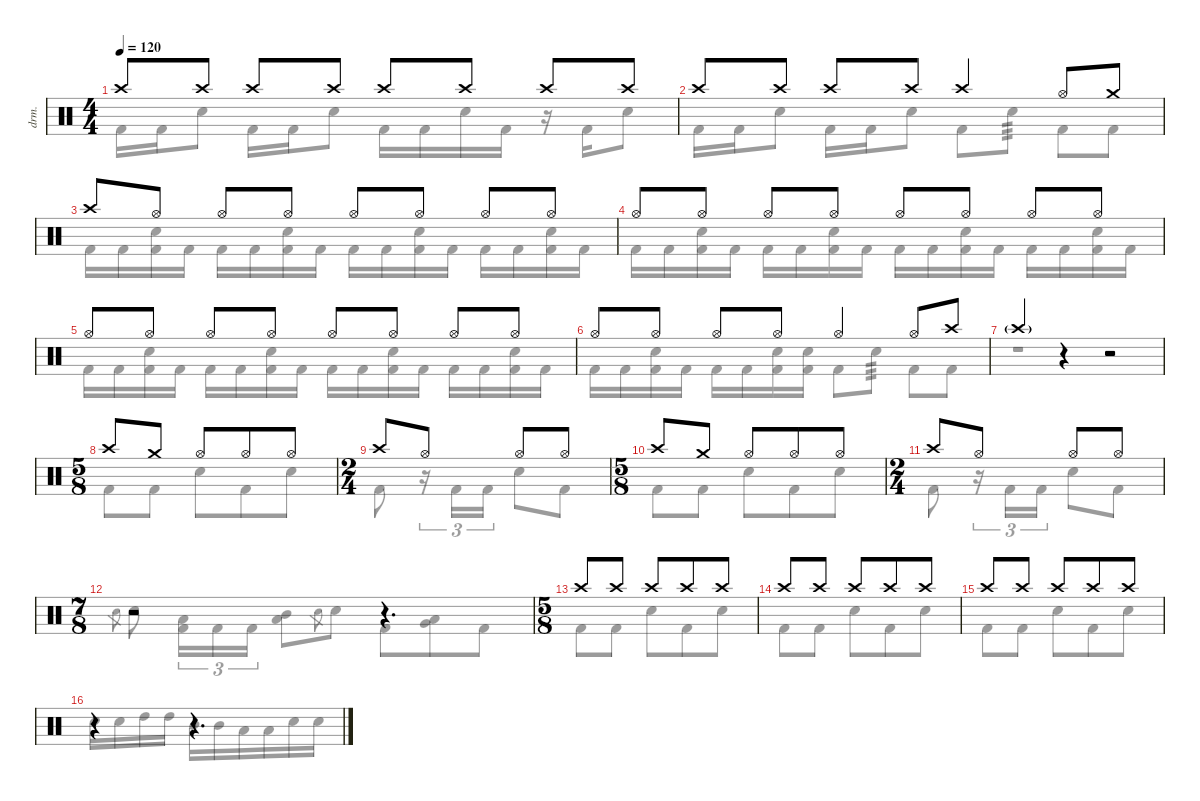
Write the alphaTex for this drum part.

\defaultSystemsLayout 4
\hideDynamics
\bracketExtendMode nobrackets
\otherSystemsTrackNameOrientation horizontal
\track ("B. Richardson Drums" "drm.") {instrument percussion}
\staff {score}
\articulation defaults
\voice
\ts (4 4)
\tempo 120
\clef neutral
\ks c "Crash high (hit)".8{dy mf beam Up} "Crash high (hit)".8{beam Up} "Crash high (hit)".8{beam Up} "Crash high (hit)".8{beam Up} "Crash high (hit)".8{beam Up} "Crash high (hit)".8{beam Up} "Crash high (hit)".8{beam Up} "Crash high (hit)".8{beam Up}
|
"Crash high (hit)".8{beam Up} "Crash high (hit)".8{beam Up} "Crash high (hit)".8{beam Up} "Crash high (hit)".8{beam Up} "Crash high (hit)".4{beam Up} "Hi-Hat (open)".8{beam Up} "Crash medium (hit)".8{beam Up} |
"Crash high (hit)".8{beam Up} "Hi-Hat (open)".8{beam Up} "Hi-Hat (open)".8{beam Up} "Hi-Hat (open)".8{beam Up} "Hi-Hat (open)".8{beam Up} "Hi-Hat (open)".8{beam Up} "Hi-Hat (open)".8{beam Up} "Hi-Hat (open)".8{beam Up} |
"Hi-Hat (open)".8{beam Up} "Hi-Hat (open)".8{beam Up} "Hi-Hat (open)".8{beam Up} "Hi-Hat (open)".8{beam Up} "Hi-Hat (open)".8{beam Up} "Hi-Hat (open)".8{beam Up} "Hi-Hat (open)".8{beam Up} "Hi-Hat (open)".8{beam Up} |
"Hi-Hat (open)".8{beam Up} "Hi-Hat (open)".8{beam Up} "Hi-Hat (open)".8{beam Up} "Hi-Hat (open)".8{beam Up} "Hi-Hat (open)".8{beam Up} "Hi-Hat (open)".8{beam Up} "Hi-Hat (open)".8{beam Up} "Hi-Hat (open)".8{beam Up} |
"Hi-Hat (open)".8{beam Up} "Hi-Hat (open)".8{beam Up} "Hi-Hat (open)".8{beam Up} "Hi-Hat (open)".8{beam Up} "Hi-Hat (open)".4{beam Up} "Hi-Hat (open)".8{beam Up} "Crash high (hit)".8{beam Up} |
"Crash high (hit)"{g}.4{dy pp beam Up} r.4{beam Up} r.2{beam Up} |
\ts (5 8)
\beaming (8 2 3)
"Crash high (hit)".8{dy mf beam Up} "Crash medium (hit)".8{beam Up} "Hi-Hat (open)".8{beam Up} "Hi-Hat (open)".8{beam Up} "Hi-Hat (open)".8{beam Up} |
\ts (2 4)
\beaming (8 2 2)
"Crash high (hit)".8{beam Up} "Hi-Hat (open)".8{beam Up} "Hi-Hat (open)".8{beam Up} "Hi-Hat (open)".8{beam Up} |
\ts (5 8)
\beaming (8 2 3)
"Crash high (hit)".8{beam Up} "Crash medium (hit)".8{beam Up} "Hi-Hat (open)".8{beam Up} "Hi-Hat (open)".8{beam Up} "Hi-Hat (open)".8{beam Up} |
\ts (2 4)
\beaming (8 2 2)
"Crash high (hit)".8{beam Up} "Hi-Hat (open)".8{beam Up} "Hi-Hat (open)".8{beam Up} "Hi-Hat (open)".8{beam Up} |
\ts (7 8)
\beaming (8 2 2 3)
r.2{beam Up} r.4{d beam Up} |
\ts (5 8)
\beaming (8 2 3)
"Crash high (hit)".8{beam Up} "Crash high (hit)".8{beam Up} "Crash high (hit)".8{beam Up} "Crash high (hit)".8{beam Up} "Crash high (hit)".8{beam Up} |
"Crash high (hit)".8{beam Up} "Crash high (hit)".8{beam Up} "Crash high (hit)".8{beam Up} "Crash high (hit)".8{beam Up} "Crash high (hit)".8{beam Up} |
"Crash high (hit)".8{beam Up} "Crash high (hit)".8{beam Up} "Crash high (hit)".8{beam Up} "Crash high (hit)".8{beam Up} "Crash high (hit)".8{beam Up} |
r.4{beam Up} r.4{d beam Up}
\voice
\clef neutral
\ottava regular
\simile none
\ks c "Kick (hit) 2".16{dy fff beam Down} "Kick (hit) 2".16{beam Down} "Snare (hit) 2".8{beam Down} "Kick (hit) 2".16{beam Down} "Kick (hit) 2".16{beam Down} "Snare (hit) 2".8{beam Down} "Kick (hit) 2".16{beam Down} "Kick (hit) 2".16{beam Down} "Snare (hit) 2".16{beam Down} "Kick (hit) 2".16{beam Down}
r.16{beam Down} "Kick (hit) 2".16{beam Down} "Snare (hit) 2".8{beam Down} |
"Kick (hit) 2".16{beam Down} "Kick (hit) 2".16{beam Down} "Snare (hit) 2".8{beam Down} "Kick (hit) 2".16{beam Down} "Kick (hit) 2".16{beam Down} "Snare (hit) 2".8{beam Down} "Kick (hit) 2".8{beam Down} "Snare (hit) 2".8{tp 3 dy f beam Down} "Kick (hit) 2".8{dy fff beam Down} "Kick (hit) 2".8{beam Down} |
"Kick (hit) 2".16{beam Down} "Kick (hit) 2".16{beam Down} ("Snare (hit) 2" "Kick (hit) 2").16{beam Down} "Kick (hit) 2".16{beam Down} "Kick (hit) 2".16{beam Down} "Kick (hit) 2".16{beam Down} ("Snare (hit) 2" "Kick (hit) 2").16{beam Down} "Kick (hit) 2".16{beam Down} "Kick (hit) 2".16{beam Down} "Kick (hit) 2".16{beam Down} ("Snare (hit) 2" "Kick (hit) 2").16{beam Down} "Kick (hit) 2".16{beam Down} "Kick (hit) 2".16{beam Down} "Kick (hit) 2".16{beam Down} ("Snare (hit) 2" "Kick (hit) 2").16{beam Down} "Kick (hit) 2".16{beam Down} |
"Kick (hit) 2".16{beam Down} "Kick (hit) 2".16{beam Down} ("Snare (hit) 2" "Kick (hit) 2").16{beam Down} "Kick (hit) 2".16{beam Down} "Kick (hit) 2".16{beam Down} "Kick (hit) 2".16{beam Down} ("Snare (hit) 2" "Kick (hit) 2").16{beam Down} "Kick (hit) 2".16{beam Down} "Kick (hit) 2".16{beam Down} "Kick (hit) 2".16{beam Down} ("Snare (hit) 2" "Kick (hit) 2").16{beam Down} "Kick (hit) 2".16{beam Down} "Kick (hit) 2".16{beam Down} "Kick (hit) 2".16{beam Down} ("Snare (hit) 2" "Kick (hit) 2").16{beam Down} "Kick (hit) 2".16{beam Down} |
"Kick (hit) 2".16{beam Down} "Kick (hit) 2".16{beam Down} ("Snare (hit) 2" "Kick (hit) 2").16{beam Down} "Kick (hit) 2".16{beam Down} "Kick (hit) 2".16{beam Down} "Kick (hit) 2".16{beam Down} ("Snare (hit) 2" "Kick (hit) 2").16{beam Down} "Kick (hit) 2".16{beam Down} "Kick (hit) 2".16{beam Down} "Kick (hit) 2".16{beam Down} ("Snare (hit) 2" "Kick (hit) 2").16{beam Down} "Kick (hit) 2".16{beam Down} "Kick (hit) 2".16{beam Down} "Kick (hit) 2".16{beam Down} ("Snare (hit) 2" "Kick (hit) 2").16{beam Down} "Kick (hit) 2".16{beam Down} |
"Kick (hit) 2".16{beam Down} "Kick (hit) 2".16{beam Down} ("Snare (hit) 2" "Kick (hit) 2").16{beam Down} "Kick (hit) 2".16{beam Down} "Kick (hit) 2".16{beam Down} "Kick (hit) 2".16{beam Down} ("Snare (hit) 2" "Kick (hit) 2").16{beam Down} ("Snare (hit) 2" "Kick (hit) 2").16{beam Down} "Kick (hit) 2".8{beam Down} "Snare (hit) 2".8{tp 3 dy f beam Down} "Kick (hit) 2".8{dy fff beam Down} "Kick (hit) 2".8{beam Down} |
r.1{beam Down} |
"Kick (hit) 2".8{beam Down} "Kick (hit) 2".8{beam Down} "Snare (hit) 2".8{beam Down} "Kick (hit) 2".8{beam Down} "Snare (hit) 2".8{beam Down} |
"Kick (hit) 2".8{beam Down} r.16{tu (3 2) beam Down} "Kick (hit) 2".16{tu (3 2) beam Down} "Kick (hit) 2".16{tu (3 2) beam Down} "Snare (hit) 2".8{beam Down} "Kick (hit) 2".8{beam Down} |
"Kick (hit) 2".8{beam Down} "Kick (hit) 2".8{beam Down} "Snare (hit) 2".8{beam Down} "Kick (hit) 2".8{beam Down} "Snare (hit) 2".8{beam Down} |
"Kick (hit) 2".8{beam Down} r.16{tu (3 2) beam Down} "Kick (hit) 2".16{tu (3 2) beam Down} "Kick (hit) 2".16{tu (3 2) beam Down} "Snare (hit) 2".8{beam Down} "Kick (hit) 2".8{beam Down} |
"Electric Snare (hit)".8{gr dy ff beam Down} "Snare (hit) 2".8{dy fff beam Down} ("Low Tom (hit)" "Kick (hit) 2").16{tu (3 2) beam Down} "Kick (hit) 2".16{tu (3 2) beam Down} "Kick (hit) 2".16{tu (3 2) beam Down} ("Mid Tom (hit)" "Low Tom (hit)").8{beam Down} "Electric Snare (hit)".8{gr dy ff beam Down} "Snare (hit) 2".8{dy fff beam Down} "Kick (hit) 2".8{beam Down} ("Low Tom (hit)" "Very Low Tom (hit)").8{beam Down} "Kick (hit) 2".8{beam Down} |
"Kick (hit) 2".8{beam Down} "Kick (hit) 2".8{beam Down} "Snare (hit) 2".8{beam Down} "Kick (hit) 2".8{beam Down} "Snare (hit) 2".8{beam Down} |
"Kick (hit) 2".8{beam Down} "Kick (hit) 2".8{beam Down} "Snare (hit) 2".8{beam Down} "Kick (hit) 2".8{beam Down} "Snare (hit) 2".8{beam Down} |
"Kick (hit) 2".8{beam Down} "Kick (hit) 2".8{beam Down} "Snare (hit) 2".8{beam Down} "Kick (hit) 2".8{beam Down} "Snare (hit) 2".8{beam Down} |
"Snare (hit) 2".16{beam Down} "Snare (hit) 2".16{beam Down} "High Tom (hit)".16{beam Down} "High Tom (hit)".16{beam Down} "Mid Tom (hit)".16{beam Down} "Mid Tom (hit)".16{beam Down} "Low Tom (hit)".16{beam Down} "Low Tom (hit)".16{beam Down} "Snare (hit) 2".16{beam Down} "Snare (hit) 2".16{beam Down}
